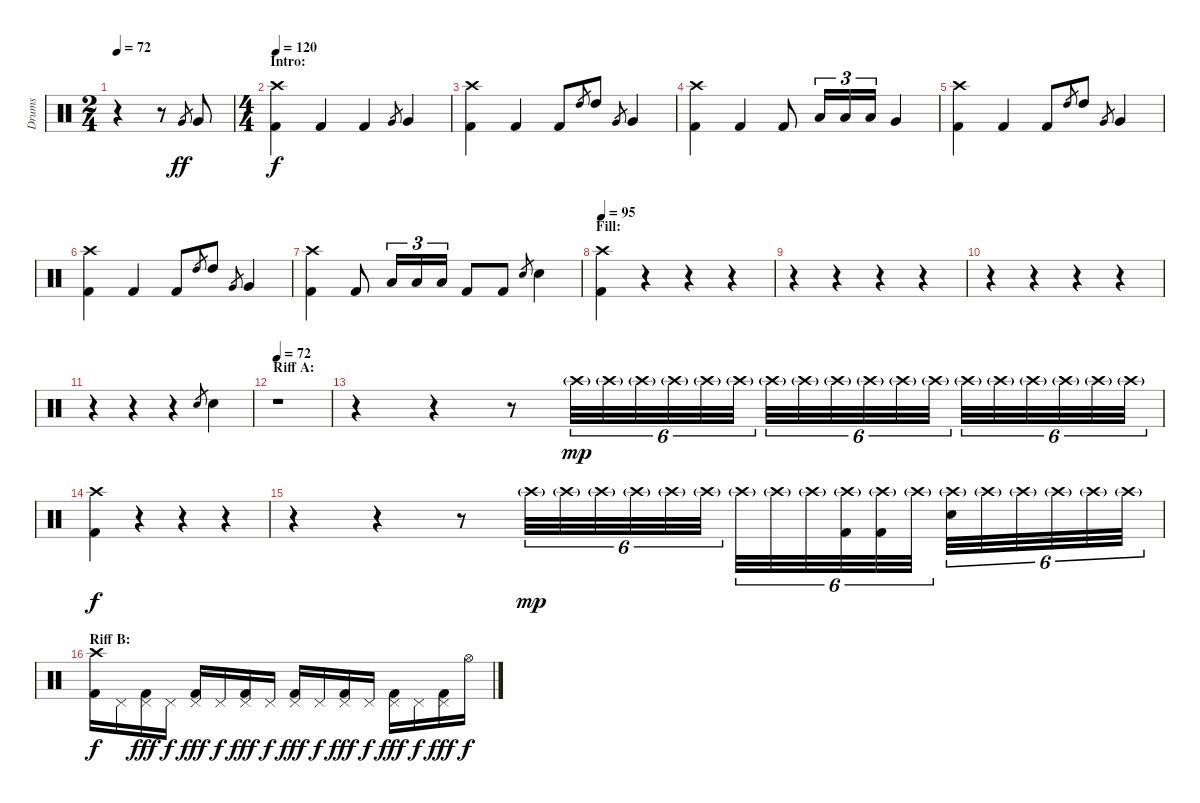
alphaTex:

\track ("Drums" "Drums") {instrument percussion}
\staff {score}
\articulation defaults
\ts (2 4)
\tempo 72
\clef neutral
\ks c
r.4{dy ff} r.8 "Very Low Tom (hit)".8{gr} "Very Low Tom (hit)".8 |
\ts (4 4)
\section ("" "Intro:")
\tempo 120
("Crash high (hit)" "Kick (hit) 2").4{dy f} "Kick (hit) 2".4 "Kick (hit) 2".4 "Very Low Tom (hit)".8{gr} "Very Low Tom (hit)".4 |
("Crash high (hit)" "Kick (hit) 2").4 "Kick (hit) 2".4 "Kick (hit) 2".8 "High Tom (hit)".8{gr} "High Tom (hit)".8 "Very Low Tom (hit)".8{gr} "Very Low Tom (hit)".4 |
("Crash high (hit)" "Kick (hit) 2").4 "Kick (hit) 2".4 "Kick (hit) 2".8 "Low Tom (hit)".16{tu (3 2)} "Low Tom (hit)".16{tu (3 2)} "Low Tom (hit)".16{tu (3 2)} "Very Low Tom (hit)".4 |
("Crash high (hit)" "Kick (hit) 2").4 "Kick (hit) 2".4 "Kick (hit) 2".8 "High Tom (hit)".8{gr} "High Tom (hit)".8 "Very Low Tom (hit)".8{gr} "Very Low Tom (hit)".4 |
("Crash high (hit)" "Kick (hit) 2").4 "Kick (hit) 2".4 "Kick (hit) 2".8 "High Tom (hit)".8{gr} "High Tom (hit)".8 "Very Low Tom (hit)".8{gr} "Very Low Tom (hit)".4 |
("Crash high (hit)" "Kick (hit) 2").4 "Kick (hit) 2".8 "Low Tom (hit)".16{tu (3 2)} "Low Tom (hit)".16{tu (3 2)} "Low Tom (hit)".16{tu (3 2)} "Kick (hit) 2".8 "Kick (hit) 2".8 "Snare (hit) 2".8{gr} "Snare (hit) 2".4 |
\section ("" "Fill:")
\tempo 95
("Crash high (hit)" "Kick (hit) 2").4 r.4 r.4 r.4 |
r.4 r.4 r.4 r.4 |
r.4 r.4 r.4 r.4 |
r.4 r.4 r.4 "Snare (hit) 2".8{gr} "Snare (hit) 2".4 |
\section ("" "Riff A:")
\tempo 72
r.1 |
r.4 r.4 r.8 "Crash high (hit)"{g}.32{tu (6 4) dy mp} "Crash high (hit)"{g}.32{tu (6 4)} "Crash high (hit)"{g}.32{tu (6 4)} "Crash high (hit)"{g}.32{tu (6 4)} "Crash high (hit)"{g}.32{tu (6 4)} "Crash high (hit)"{g}.32{tu (6 4)} "Crash high (hit)"{g}.32{tu (6 4)} "Crash high (hit)"{g}.32{tu (6 4)} "Crash high (hit)"{g}.32{tu (6 4)} "Crash high (hit)"{g}.32{tu (6 4)} "Crash high (hit)"{g}.32{tu (6 4)} "Crash high (hit)"{g}.32{tu (6 4)} "Crash high (hit)"{g}.32{tu (6 4)} "Crash high (hit)"{g}.32{tu (6 4)} "Crash high (hit)"{g}.32{tu (6 4)} "Crash high (hit)"{g}.32{tu (6 4)} "Crash high (hit)"{g}.32{tu (6 4)} "Crash high (hit)"{g}.32{tu (6 4)} |
("Crash high (hit)" "Kick (hit) 2").4{dy f} r.4 r.4 r.4 |
r.4 r.4 r.8 "Crash high (hit)"{g}.32{tu (6 4) dy mp} "Crash high (hit)"{g}.32{tu (6 4)} "Crash high (hit)"{g}.32{tu (6 4)} "Crash high (hit)"{g}.32{tu (6 4)} "Crash high (hit)"{g}.32{tu (6 4)} "Crash high (hit)"{g}.32{tu (6 4)} "Crash high (hit)"{g}.32{tu (6 4)} "Crash high (hit)"{g}.32{tu (6 4)} "Crash high (hit)"{g}.32{tu (6 4)} ("Crash high (hit)"{g} "Kick (hit) 2").32{tu (6 4)} ("Crash high (hit)"{g} "Kick (hit) 2").32{tu (6 4)} "Crash high (hit)"{g}.32{tu (6 4)} ("Crash high (hit)"{g} "Snare (hit) 2").32{tu (6 4)} "Crash high (hit)"{g}.32{tu (6 4)} "Crash high (hit)"{g}.32{tu (6 4)} "Crash high (hit)"{g}.32{tu (6 4)} "Crash high (hit)"{g}.32{tu (6 4)} "Crash high (hit)"{g}.32{tu (6 4)} |
\section ("" "Riff B:")
("Crash high (hit)" "Kick (hit) 2").16{dy f} "Pedal Hi-Hat (hit)".16 ("Pedal Hi-Hat (hit)" "Kick (hit) 2").16{dy fff} "Pedal Hi-Hat (hit)".16{dy f} ("Pedal Hi-Hat (hit)" "Kick (hit) 2").16{dy fff} "Pedal Hi-Hat (hit)".16{dy f} ("Pedal Hi-Hat (hit)" "Kick (hit) 2").16{dy fff} "Pedal Hi-Hat (hit)".16{dy f} ("Pedal Hi-Hat (hit)" "Kick (hit) 2").16{dy fff} "Pedal Hi-Hat (hit)".16{dy f} ("Pedal Hi-Hat (hit)" "Kick (hit) 2").16{dy fff} "Pedal Hi-Hat (hit)".16{dy f} ("Pedal Hi-Hat (hit)" "Kick (hit) 2").16{dy fff} "Pedal Hi-Hat (hit)".16{dy f} ("Pedal Hi-Hat (hit)" "Kick (hit) 2").16{dy fff} "Hi-Hat (open)".16{dy f}
